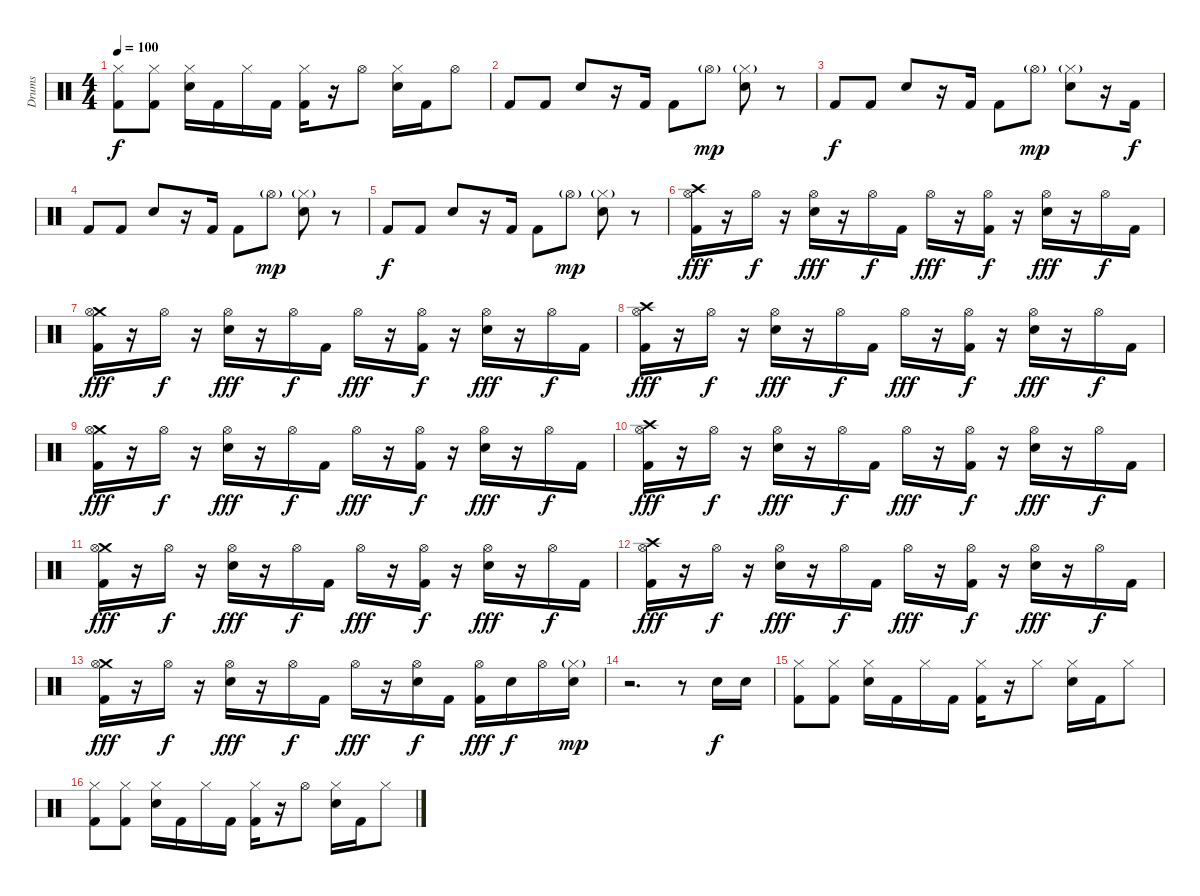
\track ("Drums" "Drums") {instrument percussion}
\staff {score}
\articulation defaults
\ts (4 4)
\tempo 100
\clef neutral
\ks c
("Hi-Hat (closed)" "Kick (hit) 2").8{dy f} ("Hi-Hat (closed)" "Kick (hit) 2").8 ("Hi-Hat (closed)" "Electric Snare (hit)").16 "Kick (hit) 2".16 "Hi-Hat (closed)".16 "Kick (hit) 2".16 ("Hi-Hat (closed)" "Kick (hit) 2").16 r.16 "Hi-Hat (open)".8 ("Hi-Hat (closed)" "Electric Snare (hit)").16 "Kick (hit) 2".16 "Hi-Hat (open)".8 |
"Kick (hit) 2".8 "Kick (hit) 2".8 "Electric Snare (hit)".8 r.16 "Kick (hit) 2".16 "Kick (hit) 2".8 "Hi-Hat (open)"{g}.8{dy mp} ("Hi-Hat (closed)"{g} "Electric Snare (hit)").8 r.8 |
"Kick (hit) 2".8{dy f} "Kick (hit) 2".8 "Electric Snare (hit)".8 r.16 "Kick (hit) 2".16 "Kick (hit) 2".8 "Hi-Hat (open)"{g}.8{dy mp} ("Hi-Hat (closed)"{g} "Electric Snare (hit)").8 r.16 "Kick (hit) 2".16{dy f} |
"Kick (hit) 2".8 "Kick (hit) 2".8 "Electric Snare (hit)".8 r.16 "Kick (hit) 2".16 "Kick (hit) 2".8 "Hi-Hat (open)"{g}.8{dy mp} ("Hi-Hat (closed)"{g} "Electric Snare (hit)").8 r.8 |
"Kick (hit) 2".8{dy f} "Kick (hit) 2".8 "Electric Snare (hit)".8 r.16 "Kick (hit) 2".16 "Kick (hit) 2".8 "Hi-Hat (open)"{g}.8{dy mp} ("Hi-Hat (closed)"{g} "Electric Snare (hit)").8 r.8 |
("Crash high (hit)" "Hi-Hat (open)" "Kick (hit) 2").16{dy fff} r.16 "Hi-Hat (open)".16{dy f} r.16 ("Hi-Hat (open)" "Electric Snare (hit)").16{dy fff} r.16 "Hi-Hat (open)".16{dy f} "Kick (hit) 2".16 "Hi-Hat (open)".16{dy fff} r.16 ("Hi-Hat (open)" "Kick (hit) 2").16{dy f} r.16 ("Hi-Hat (open)" "Electric Snare (hit)").16{dy fff} r.16 "Hi-Hat (open)".16{dy f} "Kick (hit) 2".16 |
("Crash medium (hit)" "Hi-Hat (open)" "Kick (hit) 2").16{dy fff} r.16 "Hi-Hat (open)".16{dy f} r.16 ("Hi-Hat (open)" "Electric Snare (hit)").16{dy fff} r.16 "Hi-Hat (open)".16{dy f} "Kick (hit) 2".16 "Hi-Hat (open)".16{dy fff} r.16 ("Hi-Hat (open)" "Kick (hit) 2").16{dy f} r.16 ("Hi-Hat (open)" "Electric Snare (hit)").16{dy fff} r.16 "Hi-Hat (open)".16{dy f} "Kick (hit) 2".16 |
("Crash high (hit)" "Hi-Hat (open)" "Kick (hit) 2").16{dy fff} r.16 "Hi-Hat (open)".16{dy f} r.16 ("Hi-Hat (open)" "Electric Snare (hit)").16{dy fff} r.16 "Hi-Hat (open)".16{dy f} "Kick (hit) 2".16 "Hi-Hat (open)".16{dy fff} r.16 ("Hi-Hat (open)" "Kick (hit) 2").16{dy f} r.16 ("Hi-Hat (open)" "Electric Snare (hit)").16{dy fff} r.16 "Hi-Hat (open)".16{dy f} "Kick (hit) 2".16 |
("Crash medium (hit)" "Hi-Hat (open)" "Kick (hit) 2").16{dy fff} r.16 "Hi-Hat (open)".16{dy f} r.16 ("Hi-Hat (open)" "Electric Snare (hit)").16{dy fff} r.16 "Hi-Hat (open)".16{dy f} "Kick (hit) 2".16 "Hi-Hat (open)".16{dy fff} r.16 ("Hi-Hat (open)" "Kick (hit) 2").16{dy f} r.16 ("Hi-Hat (open)" "Electric Snare (hit)").16{dy fff} r.16 "Hi-Hat (open)".16{dy f} "Kick (hit) 2".16 |
("Crash high (hit)" "Hi-Hat (open)" "Kick (hit) 2").16{dy fff} r.16 "Hi-Hat (open)".16{dy f} r.16 ("Hi-Hat (open)" "Electric Snare (hit)").16{dy fff} r.16 "Hi-Hat (open)".16{dy f} "Kick (hit) 2".16 "Hi-Hat (open)".16{dy fff} r.16 ("Hi-Hat (open)" "Kick (hit) 2").16{dy f} r.16 ("Hi-Hat (open)" "Electric Snare (hit)").16{dy fff} r.16 "Hi-Hat (open)".16{dy f} "Kick (hit) 2".16 |
("Crash medium (hit)" "Hi-Hat (open)" "Kick (hit) 2").16{dy fff} r.16 "Hi-Hat (open)".16{dy f} r.16 ("Hi-Hat (open)" "Electric Snare (hit)").16{dy fff} r.16 "Hi-Hat (open)".16{dy f} "Kick (hit) 2".16 "Hi-Hat (open)".16{dy fff} r.16 ("Hi-Hat (open)" "Kick (hit) 2").16{dy f} r.16 ("Hi-Hat (open)" "Electric Snare (hit)").16{dy fff} r.16 "Hi-Hat (open)".16{dy f} "Kick (hit) 2".16 |
("Crash high (hit)" "Hi-Hat (open)" "Kick (hit) 2").16{dy fff} r.16 "Hi-Hat (open)".16{dy f} r.16 ("Hi-Hat (open)" "Electric Snare (hit)").16{dy fff} r.16 "Hi-Hat (open)".16{dy f} "Kick (hit) 2".16 "Hi-Hat (open)".16{dy fff} r.16 ("Hi-Hat (open)" "Kick (hit) 2").16{dy f} r.16 ("Hi-Hat (open)" "Electric Snare (hit)").16{dy fff} r.16 "Hi-Hat (open)".16{dy f} "Kick (hit) 2".16 |
("Crash medium (hit)" "Hi-Hat (open)" "Kick (hit) 2").16{dy fff} r.16 "Hi-Hat (open)".16{dy f} r.16 ("Hi-Hat (open)" "Electric Snare (hit)").16{dy fff} r.16 "Hi-Hat (open)".16{dy f} "Kick (hit) 2".16 "Hi-Hat (open)".16{dy fff} r.16 ("Hi-Hat (open)" "Electric Snare (hit)").16{dy f} "Kick (hit) 2".16 ("Hi-Hat (open)" "Kick (hit) 2").16{dy fff} "Electric Snare (hit)".16{dy f} "Hi-Hat (open)".16 ("Hi-Hat (closed)"{g} "Electric Snare (hit)").16{dy mp} |
r.2{d} r.8 "Electric Snare (hit)".16{dy f} "Electric Snare (hit)".16 |
("Hi-Hat (closed)" "Kick (hit) 2").8 ("Hi-Hat (closed)" "Kick (hit) 2").8 ("Hi-Hat (closed)" "Electric Snare (hit)").16 "Kick (hit) 2".16 "Hi-Hat (closed)".16 "Kick (hit) 2".16 ("Hi-Hat (closed)" "Kick (hit) 2").16 r.16 "Hi-Hat (closed)".8 ("Hi-Hat (closed)" "Electric Snare (hit)").16 "Kick (hit) 2".16 "Hi-Hat (closed)".8 |
("Hi-Hat (closed)" "Kick (hit) 2").8 ("Hi-Hat (closed)" "Kick (hit) 2").8 ("Hi-Hat (closed)" "Electric Snare (hit)").16 "Kick (hit) 2".16 "Hi-Hat (closed)".16 "Kick (hit) 2".16 ("Hi-Hat (closed)" "Kick (hit) 2").16 r.16 "Hi-Hat (open)".8 ("Hi-Hat (closed)" "Electric Snare (hit)").16 "Kick (hit) 2".16 "Hi-Hat (closed)".8
